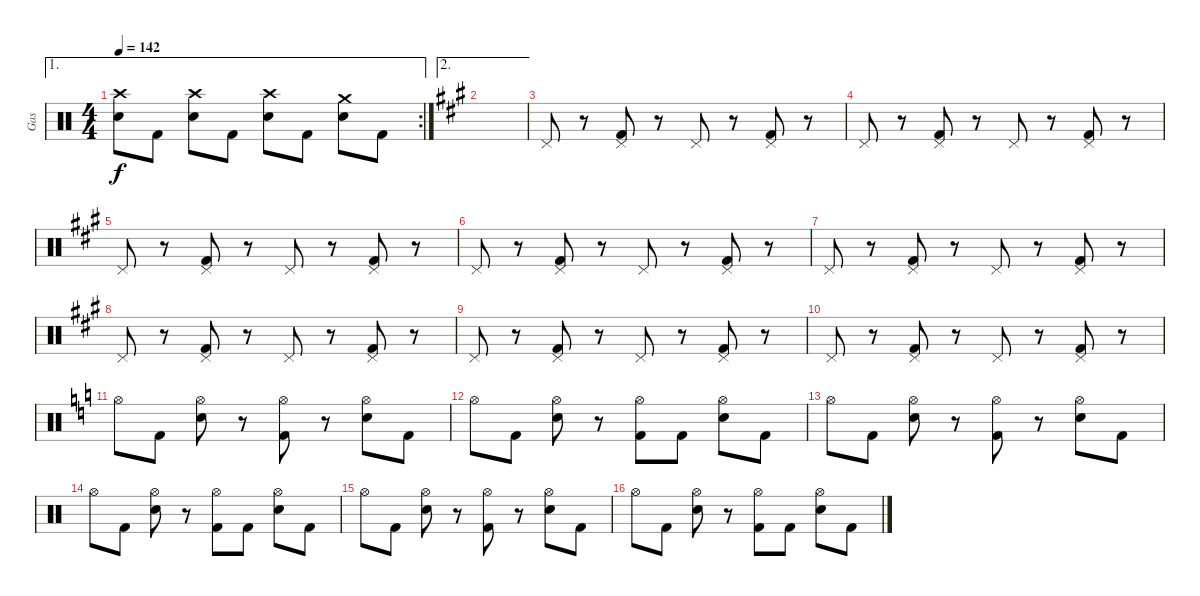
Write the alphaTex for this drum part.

\track ("Gas" "Gas") {instrument percussion}
\staff {score}
\articulation defaults
\ae 1
\rc 2
\ts (4 4)
\tempo 142
\clef neutral
\ks c
("Crash high (hit)" "Electric Snare (hit)").8{dy f} "Kick (hit) 2".8 ("Crash high (hit)" "Electric Snare (hit)").8 "Kick (hit) 2".8 ("Crash high (hit)" "Electric Snare (hit)").8 "Kick (hit) 2".8 ("Crash medium (hit)" "Electric Snare (hit)").8 "Kick (hit) 2".8 |
\ae 2
\ks a
|
"Pedal Hi-Hat (hit)".8 r.8 ("Kick (hit) 2" "Pedal Hi-Hat (hit)").8 r.8 "Pedal Hi-Hat (hit)".8 r.8 ("Kick (hit) 2" "Pedal Hi-Hat (hit)").8 r.8 |
"Pedal Hi-Hat (hit)".8 r.8 ("Kick (hit) 2" "Pedal Hi-Hat (hit)").8 r.8 "Pedal Hi-Hat (hit)".8 r.8 ("Kick (hit) 2" "Pedal Hi-Hat (hit)").8 r.8 |
"Pedal Hi-Hat (hit)".8 r.8 ("Kick (hit) 2" "Pedal Hi-Hat (hit)").8 r.8 "Pedal Hi-Hat (hit)".8 r.8 ("Kick (hit) 2" "Pedal Hi-Hat (hit)").8 r.8 |
"Pedal Hi-Hat (hit)".8 r.8 ("Kick (hit) 2" "Pedal Hi-Hat (hit)").8 r.8 "Pedal Hi-Hat (hit)".8 r.8 ("Kick (hit) 2" "Pedal Hi-Hat (hit)").8 r.8 |
"Pedal Hi-Hat (hit)".8 r.8 ("Kick (hit) 2" "Pedal Hi-Hat (hit)").8 r.8 "Pedal Hi-Hat (hit)".8 r.8 ("Kick (hit) 2" "Pedal Hi-Hat (hit)").8 r.8 |
"Pedal Hi-Hat (hit)".8 r.8 ("Kick (hit) 2" "Pedal Hi-Hat (hit)").8 r.8 "Pedal Hi-Hat (hit)".8 r.8 ("Kick (hit) 2" "Pedal Hi-Hat (hit)").8 r.8 |
"Pedal Hi-Hat (hit)".8 r.8 ("Kick (hit) 2" "Pedal Hi-Hat (hit)").8 r.8 "Pedal Hi-Hat (hit)".8 r.8 ("Kick (hit) 2" "Pedal Hi-Hat (hit)").8 r.8 |
"Pedal Hi-Hat (hit)".8 r.8 ("Kick (hit) 2" "Pedal Hi-Hat (hit)").8 r.8 "Pedal Hi-Hat (hit)".8 r.8 ("Kick (hit) 2" "Pedal Hi-Hat (hit)").8 r.8 |
\ks c "Hi-Hat (open)".8 "Kick (hit) 2".8
("Hi-Hat (open)" "Electric Snare (hit)").8 r.8 ("Hi-Hat (open)" "Kick (hit) 2").8 r.8 ("Hi-Hat (open)" "Electric Snare (hit)").8 "Kick (hit) 2".8 |
"Hi-Hat (open)".8 "Kick (hit) 2".8 ("Hi-Hat (open)" "Electric Snare (hit)").8 r.8 ("Hi-Hat (open)" "Kick (hit) 2").8 "Kick (hit) 2".8 ("Hi-Hat (open)" "Electric Snare (hit)").8 "Kick (hit) 2".8 |
"Hi-Hat (open)".8 "Kick (hit) 2".8 ("Hi-Hat (open)" "Electric Snare (hit)").8 r.8 ("Hi-Hat (open)" "Kick (hit) 2").8 r.8 ("Hi-Hat (open)" "Electric Snare (hit)").8 "Kick (hit) 2".8 |
"Hi-Hat (open)".8 "Kick (hit) 2".8 ("Hi-Hat (open)" "Electric Snare (hit)").8 r.8 ("Hi-Hat (open)" "Kick (hit) 2").8 "Kick (hit) 2".8 ("Hi-Hat (open)" "Electric Snare (hit)").8 "Kick (hit) 2".8 |
"Hi-Hat (open)".8 "Kick (hit) 2".8 ("Hi-Hat (open)" "Electric Snare (hit)").8 r.8 ("Hi-Hat (open)" "Kick (hit) 2").8 r.8 ("Hi-Hat (open)" "Electric Snare (hit)").8 "Kick (hit) 2".8 |
"Hi-Hat (open)".8 "Kick (hit) 2".8 ("Hi-Hat (open)" "Electric Snare (hit)").8 r.8 ("Hi-Hat (open)" "Kick (hit) 2").8 "Kick (hit) 2".8 ("Hi-Hat (open)" "Electric Snare (hit)").8 "Kick (hit) 2".8
